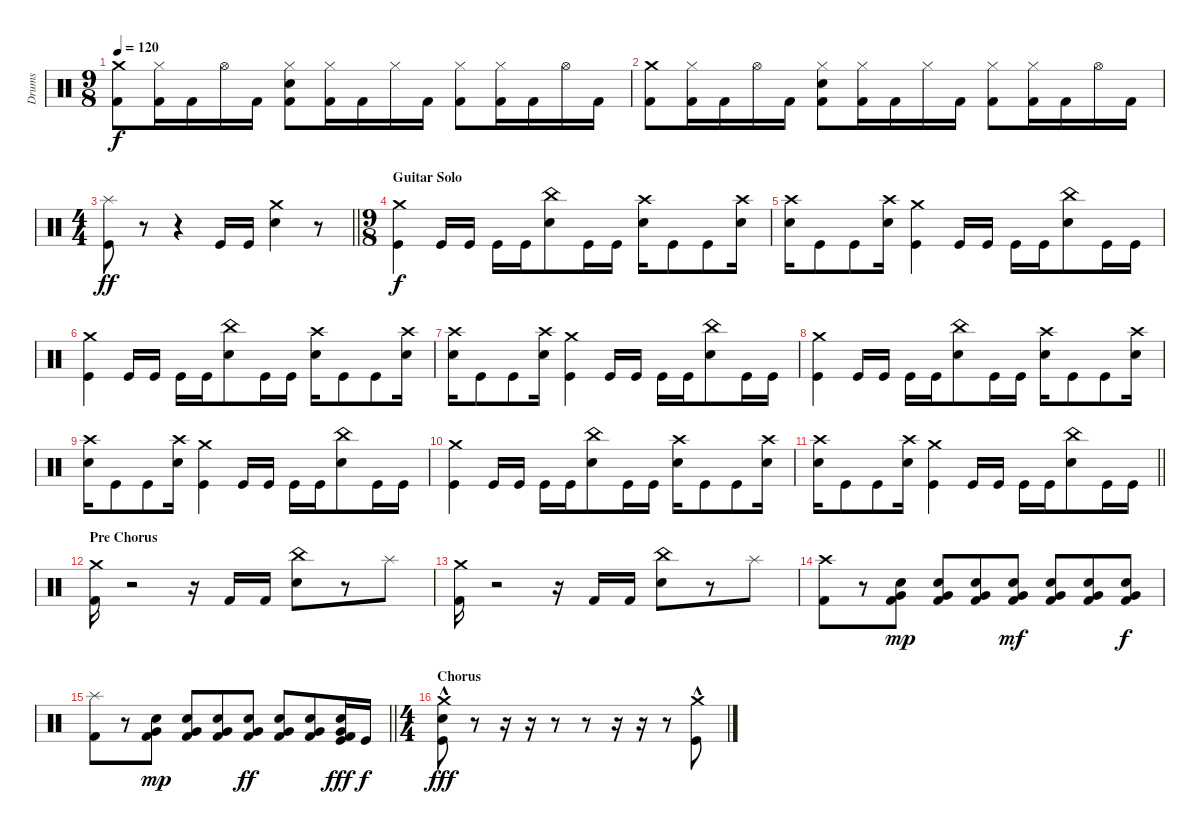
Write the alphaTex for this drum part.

\track ("Drums" "Drums") {instrument percussion}
\staff {score}
\articulation defaults
\ts (9 8)
\tempo 120
\clef neutral
\ks c
("Kick (hit) 2" "Crash medium (hit)").8{dy f} ("Hi-Hat (closed)" "Kick (hit) 2").16 "Kick (hit) 2".16 "Hi-Hat (open)".16 "Kick (hit) 2".16 ("Hi-Hat (closed)" "Kick (hit) 2" "Electric Snare (hit)").8 ("Hi-Hat (closed)" "Kick (hit) 2").16 "Kick (hit) 2".16 "Hi-Hat (closed)".16 "Kick (hit) 2".16 ("Hi-Hat (closed)" "Kick (hit) 2").8 ("Hi-Hat (closed)" "Kick (hit) 2").16 "Kick (hit) 2".16 "Hi-Hat (open)".16 "Kick (hit) 2".16 |
("Kick (hit) 2" "Crash medium (hit)").8 ("Hi-Hat (closed)" "Kick (hit) 2").16 "Kick (hit) 2".16 "Hi-Hat (open)".16 "Kick (hit) 2".16 ("Hi-Hat (closed)" "Kick (hit) 2" "Electric Snare (hit)").8 ("Hi-Hat (closed)" "Kick (hit) 2").16 "Kick (hit) 2".16 "Hi-Hat (closed)".16 "Kick (hit) 2".16 ("Hi-Hat (closed)" "Kick (hit) 2").8 ("Hi-Hat (closed)" "Kick (hit) 2").16 "Kick (hit) 2".16 "Hi-Hat (open)".16 "Kick (hit) 2".16 |
\ts (4 4)
\barLineRight lightlight
("Splash (hit)" "Kick (hit)").8{dy ff} r.8 r.4 "Kick (hit)".16 "Kick (hit)".16 ("Crash medium (hit)" "Electric Snare (hit)").4 r.8 |
\ts (9 8)
\section ("" "Guitar Solo")
("Crash medium (hit)" "Kick (hit)").4{dy f} "Kick (hit)".16 "Kick (hit)".16 "Kick (hit)".16 "Kick (hit)".16 ("China (hit)" "Electric Snare (hit)").8 "Kick (hit)".16 "Kick (hit)".16 ("Crash high (hit)" "Electric Snare (hit)").16 "Kick (hit)".8 "Kick (hit)".8 ("Crash high (hit)" "Electric Snare (hit)").16 |
("Crash high (hit)" "Electric Snare (hit)").16 "Kick (hit)".8 "Kick (hit)".8 ("Crash high (hit)" "Electric Snare (hit)").16 ("Crash medium (hit)" "Kick (hit)").4 "Kick (hit)".16 "Kick (hit)".16 "Kick (hit)".16 "Kick (hit)".16 ("China (hit)" "Electric Snare (hit)").8 "Kick (hit)".16 "Kick (hit)".16 |
("Crash medium (hit)" "Kick (hit)").4 "Kick (hit)".16 "Kick (hit)".16 "Kick (hit)".16 "Kick (hit)".16 ("China (hit)" "Electric Snare (hit)").8 "Kick (hit)".16 "Kick (hit)".16 ("Crash high (hit)" "Electric Snare (hit)").16 "Kick (hit)".8 "Kick (hit)".8 ("Crash high (hit)" "Electric Snare (hit)").16 |
("Crash high (hit)" "Electric Snare (hit)").16 "Kick (hit)".8 "Kick (hit)".8 ("Crash high (hit)" "Electric Snare (hit)").16 ("Crash medium (hit)" "Kick (hit)").4 "Kick (hit)".16 "Kick (hit)".16 "Kick (hit)".16 "Kick (hit)".16 ("China (hit)" "Electric Snare (hit)").8 "Kick (hit)".16 "Kick (hit)".16 |
("Crash medium (hit)" "Kick (hit)").4 "Kick (hit)".16 "Kick (hit)".16 "Kick (hit)".16 "Kick (hit)".16 ("China (hit)" "Electric Snare (hit)").8 "Kick (hit)".16 "Kick (hit)".16 ("Crash high (hit)" "Electric Snare (hit)").16 "Kick (hit)".8 "Kick (hit)".8 ("Crash high (hit)" "Electric Snare (hit)").16 |
("Crash high (hit)" "Electric Snare (hit)").16 "Kick (hit)".8 "Kick (hit)".8 ("Crash high (hit)" "Electric Snare (hit)").16 ("Crash medium (hit)" "Kick (hit)").4 "Kick (hit)".16 "Kick (hit)".16 "Kick (hit)".16 "Kick (hit)".16 ("China (hit)" "Electric Snare (hit)").8 "Kick (hit)".16 "Kick (hit)".16 |
("Crash medium (hit)" "Kick (hit)").4 "Kick (hit)".16 "Kick (hit)".16 "Kick (hit)".16 "Kick (hit)".16 ("China (hit)" "Electric Snare (hit)").8 "Kick (hit)".16 "Kick (hit)".16 ("Crash high (hit)" "Electric Snare (hit)").16 "Kick (hit)".8 "Kick (hit)".8 ("Crash high (hit)" "Electric Snare (hit)").16 |
\barLineRight lightlight
("Crash high (hit)" "Electric Snare (hit)").16 "Kick (hit)".8 "Kick (hit)".8 ("Crash high (hit)" "Electric Snare (hit)").16 ("Crash medium (hit)" "Kick (hit)").4 "Kick (hit)".16 "Kick (hit)".16 "Kick (hit)".16 "Kick (hit)".16 ("China (hit)" "Electric Snare (hit)").8 "Kick (hit)".16 "Kick (hit)".16 |
\section ("" "Pre Chorus")
("Kick (hit) 2" "Crash medium (hit)").16 r.2 r.16 "Kick (hit) 2".16 "Kick (hit) 2".16 ("Electric Snare (hit)" "China (hit)").8 r.8 "Splash (hit)".8 |
("Kick (hit) 2" "Crash medium (hit)").16 r.2 r.16 "Kick (hit) 2".16 "Kick (hit) 2".16 ("Electric Snare (hit)" "China (hit)").8 r.8 "Splash (hit)".8 |
("Kick (hit) 2" "Crash high (hit)").8 r.8 ("Electric Snare (hit)" "Very Low Tom (hit)" "Kick (hit) 2").8{dy mp} ("Electric Snare (hit)" "Very Low Tom (hit)" "Kick (hit) 2").8 ("Electric Snare (hit)" "Very Low Tom (hit)" "Kick (hit) 2").8 ("Kick (hit) 2" "Very Low Tom (hit)" "Electric Snare (hit)").8{dy mf} ("Electric Snare (hit)" "Very Low Tom (hit)" "Kick (hit) 2").8 ("Kick (hit) 2" "Very Low Tom (hit)" "Electric Snare (hit)").8 ("Electric Snare (hit)" "Very Low Tom (hit)" "Kick (hit) 2").8{dy f} |
\barLineRight lightlight
("Kick (hit) 2" "Splash (hit)").8 r.8 ("Electric Snare (hit)" "Very Low Tom (hit)" "Kick (hit) 2").8{dy mp} ("Electric Snare (hit)" "Very Low Tom (hit)" "Kick (hit) 2").8 ("Electric Snare (hit)" "Very Low Tom (hit)" "Kick (hit) 2").8 ("Kick (hit) 2" "Very Low Tom (hit)" "Electric Snare (hit)").8{dy ff} ("Electric Snare (hit)" "Very Low Tom (hit)" "Kick (hit) 2").8 ("Kick (hit) 2" "Very Low Tom (hit)" "Electric Snare (hit)").8 ("Electric Snare (hit)" "Very Low Tom (hit)" "Kick (hit) 2" "Kick (hit)").16{dy fff} "Kick (hit)".16{dy f} |
\ts (4 4)
\section ("" "Chorus")
("Crash medium (hit)" "Electric Snare (hit)" "Kick (hit)"{hac}).8{dy fff} r.8 r.16 r.16 r.8 r.8 r.16 r.16 r.8 ("Crash medium (hit)"{hac} "Kick (hit)"{hac}).8
